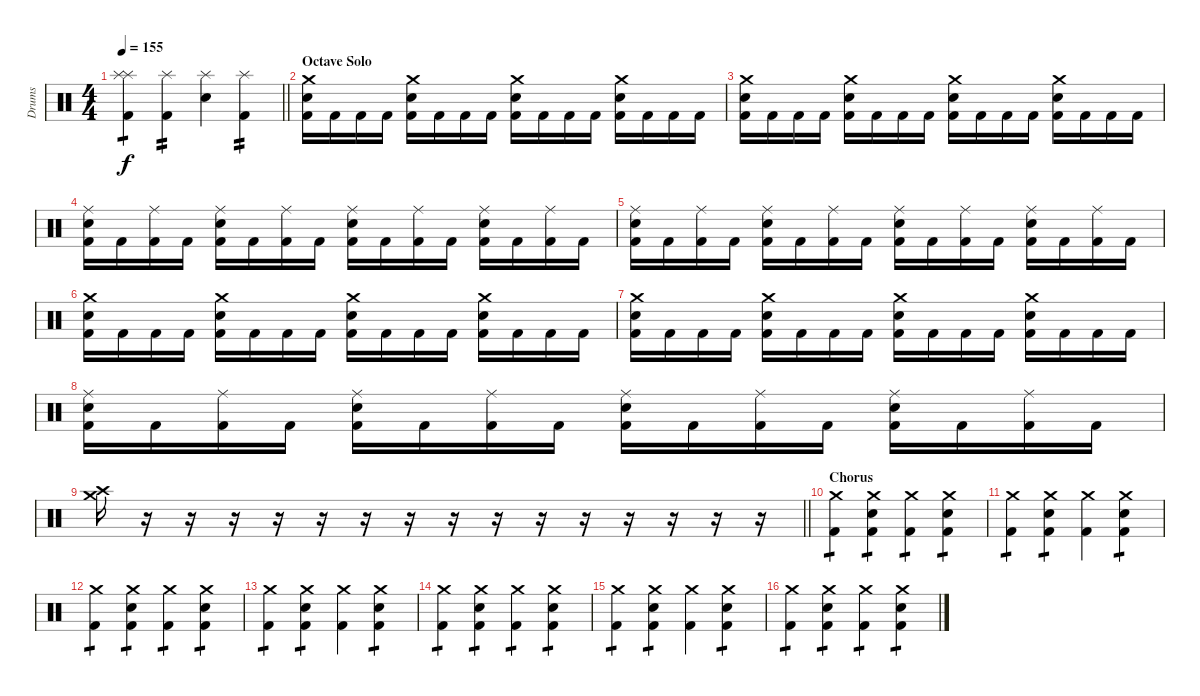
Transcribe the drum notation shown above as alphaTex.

\track ("Drums" "Drums") {instrument percussion}
\staff {score}
\articulation defaults
\ts (4 4)
\tempo 155
\clef neutral
\barLineRight lightlight
\ks c
("Kick (hit) 2" "Splash (hit)" "Splash (hit)").4{tp 1 dy f} ("Kick (hit) 2" "Splash (hit)").4{tp 2} ("Snare (hit) 2" "Splash (hit)").4 ("Kick (hit) 2" "Splash (hit)").4{tp 2} |
\section ("" "Octave Solo")
("Kick (hit) 2" "Crash medium (hit)" "Snare (hit) 2").16 "Kick (hit) 2".16 "Kick (hit) 2".16 "Kick (hit) 2".16 ("Kick (hit) 2" "Crash medium (hit)" "Snare (hit) 2").16 "Kick (hit) 2".16 "Kick (hit) 2".16 "Kick (hit) 2".16 ("Kick (hit) 2" "Crash medium (hit)" "Snare (hit) 2").16 "Kick (hit) 2".16 "Kick (hit) 2".16 "Kick (hit) 2".16 ("Kick (hit) 2" "Crash medium (hit)" "Snare (hit) 2").16 "Kick (hit) 2".16 "Kick (hit) 2".16 "Kick (hit) 2".16 |
("Kick (hit) 2" "Crash medium (hit)" "Snare (hit) 2").16 "Kick (hit) 2".16 "Kick (hit) 2".16 "Kick (hit) 2".16 ("Kick (hit) 2" "Crash medium (hit)" "Snare (hit) 2").16 "Kick (hit) 2".16 "Kick (hit) 2".16 "Kick (hit) 2".16 ("Kick (hit) 2" "Crash medium (hit)" "Snare (hit) 2").16 "Kick (hit) 2".16 "Kick (hit) 2".16 "Kick (hit) 2".16 ("Kick (hit) 2" "Crash medium (hit)" "Snare (hit) 2").16 "Kick (hit) 2".16 "Kick (hit) 2".16 "Kick (hit) 2".16 |
("Kick (hit) 2" "Ride (middle)" "Snare (hit) 2").16 "Kick (hit) 2".16 ("Kick (hit) 2" "Ride (middle)").16 "Kick (hit) 2".16 ("Kick (hit) 2" "Ride (middle)" "Snare (hit) 2").16 "Kick (hit) 2".16 ("Kick (hit) 2" "Ride (middle)").16 "Kick (hit) 2".16 ("Kick (hit) 2" "Ride (middle)" "Snare (hit) 2").16 "Kick (hit) 2".16 ("Kick (hit) 2" "Ride (middle)").16 "Kick (hit) 2".16 ("Kick (hit) 2" "Ride (middle)" "Snare (hit) 2").16 "Kick (hit) 2".16 ("Kick (hit) 2" "Ride (middle)").16 "Kick (hit) 2".16 |
("Kick (hit) 2" "Ride (middle)" "Snare (hit) 2").16 "Kick (hit) 2".16 ("Kick (hit) 2" "Ride (middle)").16 "Kick (hit) 2".16 ("Kick (hit) 2" "Ride (middle)" "Snare (hit) 2").16 "Kick (hit) 2".16 ("Kick (hit) 2" "Ride (middle)").16 "Kick (hit) 2".16 ("Kick (hit) 2" "Ride (middle)" "Snare (hit) 2").16 "Kick (hit) 2".16 ("Kick (hit) 2" "Ride (middle)").16 "Kick (hit) 2".16 ("Kick (hit) 2" "Ride (middle)" "Snare (hit) 2").16 "Kick (hit) 2".16 ("Kick (hit) 2" "Ride (middle)").16 "Kick (hit) 2".16 |
("Kick (hit) 2" "Crash medium (hit)" "Snare (hit) 2").16 "Kick (hit) 2".16 "Kick (hit) 2".16 "Kick (hit) 2".16 ("Kick (hit) 2" "Crash medium (hit)" "Snare (hit) 2").16 "Kick (hit) 2".16 "Kick (hit) 2".16 "Kick (hit) 2".16 ("Kick (hit) 2" "Crash medium (hit)" "Snare (hit) 2").16 "Kick (hit) 2".16 "Kick (hit) 2".16 "Kick (hit) 2".16 ("Kick (hit) 2" "Crash medium (hit)" "Snare (hit) 2").16 "Kick (hit) 2".16 "Kick (hit) 2".16 "Kick (hit) 2".16 |
("Kick (hit) 2" "Crash medium (hit)" "Snare (hit) 2").16 "Kick (hit) 2".16 "Kick (hit) 2".16 "Kick (hit) 2".16 ("Kick (hit) 2" "Crash medium (hit)" "Snare (hit) 2").16 "Kick (hit) 2".16 "Kick (hit) 2".16 "Kick (hit) 2".16 ("Kick (hit) 2" "Crash medium (hit)" "Snare (hit) 2").16 "Kick (hit) 2".16 "Kick (hit) 2".16 "Kick (hit) 2".16 ("Kick (hit) 2" "Crash medium (hit)" "Snare (hit) 2").16 "Kick (hit) 2".16 "Kick (hit) 2".16 "Kick (hit) 2".16 |
("Kick (hit) 2" "Ride (middle)" "Snare (hit) 2").16 "Kick (hit) 2".16 ("Kick (hit) 2" "Ride (middle)").16 "Kick (hit) 2".16 ("Kick (hit) 2" "Ride (middle)" "Snare (hit) 2").16 "Kick (hit) 2".16 ("Kick (hit) 2" "Ride (middle)").16 "Kick (hit) 2".16 ("Kick (hit) 2" "Ride (middle)" "Snare (hit) 2").16 "Kick (hit) 2".16 ("Kick (hit) 2" "Ride (middle)").16 "Kick (hit) 2".16 ("Kick (hit) 2" "Ride (middle)" "Snare (hit) 2").16 "Kick (hit) 2".16 ("Kick (hit) 2" "Ride (middle)").16 "Kick (hit) 2".16 |
\barLineRight lightlight
("Crash medium (hit)" "Crash high (hit)").16 r.16 r.16 r.16 r.16 r.16 r.16 r.16 r.16 r.16 r.16 r.16 r.16 r.16 r.16 r.16 |
\section ("" "Chorus")
("Crash medium (hit)" "Kick (hit) 2").4{tp 1} ("Crash medium (hit)" "Snare (hit) 2" "Kick (hit) 2").4{tp 1} ("Crash medium (hit)" "Kick (hit) 2").4{tp 1} ("Crash medium (hit)" "Snare (hit) 2" "Kick (hit) 2").4{tp 1} |
("Crash medium (hit)" "Kick (hit) 2").4{tp 1} ("Crash medium (hit)" "Snare (hit) 2" "Kick (hit) 2").4{tp 1} ("Crash medium (hit)" "Kick (hit) 2").4 ("Crash medium (hit)" "Snare (hit) 2" "Kick (hit) 2").4{tp 1} |
("Crash medium (hit)" "Kick (hit) 2").4{tp 1} ("Crash medium (hit)" "Snare (hit) 2" "Kick (hit) 2").4{tp 1} ("Crash medium (hit)" "Kick (hit) 2").4{tp 1} ("Crash medium (hit)" "Snare (hit) 2" "Kick (hit) 2").4{tp 1} |
("Crash medium (hit)" "Kick (hit) 2").4{tp 1} ("Crash medium (hit)" "Snare (hit) 2" "Kick (hit) 2").4{tp 1} ("Crash medium (hit)" "Kick (hit) 2").4 ("Crash medium (hit)" "Snare (hit) 2" "Kick (hit) 2").4{tp 1} |
("Crash medium (hit)" "Kick (hit) 2").4{tp 1} ("Crash medium (hit)" "Snare (hit) 2" "Kick (hit) 2").4{tp 1} ("Crash medium (hit)" "Kick (hit) 2").4{tp 1} ("Crash medium (hit)" "Snare (hit) 2" "Kick (hit) 2").4{tp 1} |
("Crash medium (hit)" "Kick (hit) 2").4{tp 1} ("Crash medium (hit)" "Snare (hit) 2" "Kick (hit) 2").4{tp 1} ("Crash medium (hit)" "Kick (hit) 2").4 ("Crash medium (hit)" "Snare (hit) 2" "Kick (hit) 2").4{tp 1} |
("Crash medium (hit)" "Kick (hit) 2").4{tp 1} ("Crash medium (hit)" "Snare (hit) 2" "Kick (hit) 2").4{tp 1} ("Crash medium (hit)" "Kick (hit) 2").4{tp 1} ("Crash medium (hit)" "Snare (hit) 2" "Kick (hit) 2").4{tp 1}
